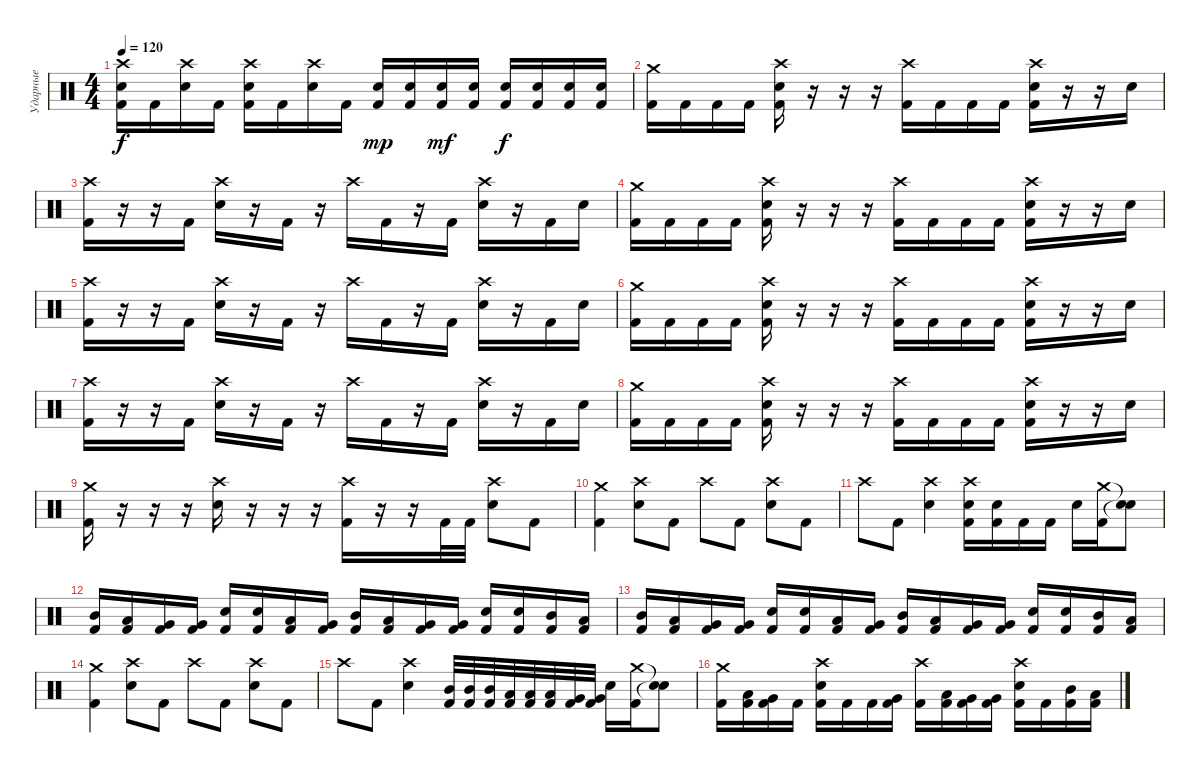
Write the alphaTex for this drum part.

\track ("Ударные" "Ударные") {instrument percussion}
\staff {score}
\articulation defaults
\ts (4 4)
\tempo 120
\clef neutral
\ks c
("Kick (hit) 2" "Electric Snare (hit)" "Crash high (hit)").16{dy f} "Kick (hit) 2".16 ("Electric Snare (hit)" "Crash high (hit)").16 "Kick (hit) 2".16 ("Kick (hit) 2" "Electric Snare (hit)" "Crash high (hit)").16 "Kick (hit) 2".16 ("Electric Snare (hit)" "Crash high (hit)").16 "Kick (hit) 2".16 ("Electric Snare (hit)" "Kick (hit) 2").16{dy mp} ("Electric Snare (hit)" "Kick (hit) 2").16 ("Electric Snare (hit)" "Kick (hit) 2").16{dy mf} ("Electric Snare (hit)" "Kick (hit) 2").16 ("Electric Snare (hit)" "Kick (hit) 2").16{dy f} ("Electric Snare (hit)" "Kick (hit) 2").16 ("Electric Snare (hit)" "Kick (hit) 2").16 ("Electric Snare (hit)" "Kick (hit) 2").16 |
("Kick (hit) 2" "Crash medium (hit)").16 "Kick (hit) 2".16 "Kick (hit) 2".16 "Kick (hit) 2".16 ("Kick (hit) 2" "Electric Snare (hit)" "Crash high (hit)").16 r.16 r.16 r.16 ("Kick (hit) 2" "Crash high (hit)").16 "Kick (hit) 2".16 "Kick (hit) 2".16 "Kick (hit) 2".16 ("Kick (hit) 2" "Electric Snare (hit)" "Crash high (hit)").16 r.16 r.16 "Electric Snare (hit)".16 |
("Kick (hit) 2" "Crash high (hit)").16 r.16 r.16 "Kick (hit) 2".16 ("Electric Snare (hit)" "Crash high (hit)").16 r.16 "Kick (hit) 2".16 r.16 "Crash high (hit)".16 "Kick (hit) 2".16 r.16 "Kick (hit) 2".16 ("Electric Snare (hit)" "Crash high (hit)").16 r.16 "Kick (hit) 2".16 "Electric Snare (hit)".16 |
("Kick (hit) 2" "Crash medium (hit)").16 "Kick (hit) 2".16 "Kick (hit) 2".16 "Kick (hit) 2".16 ("Kick (hit) 2" "Electric Snare (hit)" "Crash high (hit)").16 r.16 r.16 r.16 ("Kick (hit) 2" "Crash high (hit)").16 "Kick (hit) 2".16 "Kick (hit) 2".16 "Kick (hit) 2".16 ("Kick (hit) 2" "Electric Snare (hit)" "Crash high (hit)").16 r.16 r.16 "Electric Snare (hit)".16 |
("Kick (hit) 2" "Crash high (hit)").16 r.16 r.16 "Kick (hit) 2".16 ("Electric Snare (hit)" "Crash high (hit)").16 r.16 "Kick (hit) 2".16 r.16 "Crash high (hit)".16 "Kick (hit) 2".16 r.16 "Kick (hit) 2".16 ("Electric Snare (hit)" "Crash high (hit)").16 r.16 "Kick (hit) 2".16 "Electric Snare (hit)".16 |
("Kick (hit) 2" "Crash medium (hit)").16 "Kick (hit) 2".16 "Kick (hit) 2".16 "Kick (hit) 2".16 ("Kick (hit) 2" "Electric Snare (hit)" "Crash high (hit)").16 r.16 r.16 r.16 ("Kick (hit) 2" "Crash high (hit)").16 "Kick (hit) 2".16 "Kick (hit) 2".16 "Kick (hit) 2".16 ("Kick (hit) 2" "Electric Snare (hit)" "Crash high (hit)").16 r.16 r.16 "Electric Snare (hit)".16 |
("Kick (hit) 2" "Crash high (hit)").16 r.16 r.16 "Kick (hit) 2".16 ("Electric Snare (hit)" "Crash high (hit)").16 r.16 "Kick (hit) 2".16 r.16 "Crash high (hit)".16 "Kick (hit) 2".16 r.16 "Kick (hit) 2".16 ("Electric Snare (hit)" "Crash high (hit)").16 r.16 "Kick (hit) 2".16 "Electric Snare (hit)".16 |
("Kick (hit) 2" "Crash medium (hit)").16 "Kick (hit) 2".16 "Kick (hit) 2".16 "Kick (hit) 2".16 ("Kick (hit) 2" "Electric Snare (hit)" "Crash high (hit)").16 r.16 r.16 r.16 ("Kick (hit) 2" "Crash high (hit)").16 "Kick (hit) 2".16 "Kick (hit) 2".16 "Kick (hit) 2".16 ("Kick (hit) 2" "Electric Snare (hit)" "Crash high (hit)").16 r.16 r.16 "Electric Snare (hit)".16 |
("Kick (hit) 2" "Crash medium (hit)").16 r.16 r.16 r.16 ("Electric Snare (hit)" "Crash high (hit)").16 r.16 r.16 r.16 ("Kick (hit) 2" "Crash high (hit)").16 r.16 r.16 "Kick (hit) 2".32 "Kick (hit) 2".32 ("Electric Snare (hit)" "Crash high (hit)").8 "Kick (hit) 2".8 |
("Kick (hit) 2" "Crash medium (hit)").4 ("Electric Snare (hit)" "Crash high (hit)").8 "Kick (hit) 2".8 "Crash high (hit)".8 "Kick (hit) 2".8 ("Electric Snare (hit)" "Crash high (hit)").8 "Kick (hit) 2".8 |
"Crash high (hit)".8 "Kick (hit) 2".8 ("Electric Snare (hit)" "Crash high (hit)").4 ("Electric Snare (hit)" "Kick (hit) 2" "Crash high (hit)").16 ("Electric Snare (hit)" "Kick (hit) 2").16 "Kick (hit) 2".16 "Kick (hit) 2".16 "Electric Snare (hit)".16 ("Crash medium (hit)" "Kick (hit) 2").16 ("Snare (hit)"{t} "Snare (hit)"{t}).8 |
("Kick (hit) 2" "Mid Tom (hit)").16 ("Kick (hit) 2" "Low Tom (hit)").16 ("Kick (hit) 2" "Very Low Tom (hit)").16 ("Kick (hit) 2" "Very Low Tom (hit)").16 ("Kick (hit) 2" "Electric Snare (hit)").16 ("Kick (hit) 2" "Electric Snare (hit)").16 ("Kick (hit) 2" "Low Tom (hit)").16 ("Kick (hit) 2" "Very Low Tom (hit)").16 ("Kick (hit) 2" "Mid Tom (hit)").16 ("Kick (hit) 2" "Low Tom (hit)").16 ("Kick (hit) 2" "Very Low Tom (hit)").16 ("Kick (hit) 2" "Very Low Tom (hit)").16 ("Kick (hit) 2" "Electric Snare (hit)").16 ("Kick (hit) 2" "Electric Snare (hit)").16 ("Kick (hit) 2" "Mid Tom (hit)").16 ("Kick (hit) 2" "Low Tom (hit)").16 |
("Kick (hit) 2" "Mid Tom (hit)").16 ("Kick (hit) 2" "Low Tom (hit)").16 ("Kick (hit) 2" "Very Low Tom (hit)").16 ("Kick (hit) 2" "Very Low Tom (hit)").16 ("Kick (hit) 2" "Electric Snare (hit)").16 ("Kick (hit) 2" "Electric Snare (hit)").16 ("Kick (hit) 2" "Low Tom (hit)").16 ("Kick (hit) 2" "Very Low Tom (hit)").16 ("Kick (hit) 2" "Mid Tom (hit)").16 ("Kick (hit) 2" "Low Tom (hit)").16 ("Kick (hit) 2" "Very Low Tom (hit)").16 ("Kick (hit) 2" "Very Low Tom (hit)").16 ("Kick (hit) 2" "Electric Snare (hit)").16 ("Kick (hit) 2" "Electric Snare (hit)").16 ("Kick (hit) 2" "Mid Tom (hit)").16 ("Kick (hit) 2" "Low Tom (hit)").16 |
("Kick (hit) 2" "Crash medium (hit)").4 ("Electric Snare (hit)" "Crash high (hit)").8 "Kick (hit) 2".8 "Crash high (hit)".8 "Kick (hit) 2".8 ("Electric Snare (hit)" "Crash high (hit)").8 "Kick (hit) 2".8 |
"Crash high (hit)".8 "Kick (hit) 2".8 ("Electric Snare (hit)" "Crash high (hit)").4 ("Mid Tom (hit)" "Kick (hit) 2").32 ("Mid Tom (hit)" "Kick (hit) 2").32 ("Mid Tom (hit)" "Kick (hit) 2").32 ("Low Tom (hit)" "Kick (hit) 2").32 ("Low Tom (hit)" "Kick (hit) 2").32 ("Low Tom (hit)" "Kick (hit) 2").32 ("Very Low Tom (hit)" "Kick (hit) 2").32 ("Very Low Tom (hit)" "Kick (hit) 2").32 "Electric Snare (hit)".16 ("Crash medium (hit)" "Kick (hit) 2").16 ("Snare (hit)"{t} "Snare (hit)"{t}).8 |
("Kick (hit) 2" "Crash medium (hit)").16 ("Kick (hit) 2" "Low Tom (hit)").16 ("Kick (hit) 2" "Very Low Tom (hit)").16 "Kick (hit) 2".16 ("Kick (hit) 2" "Electric Snare (hit)" "Crash high (hit)").16 "Kick (hit) 2".16 "Kick (hit) 2".16 ("Kick (hit) 2" "Very Low Tom (hit)").16 ("Kick (hit) 2" "Crash high (hit)").16 ("Kick (hit) 2" "Low Tom (hit)").16 ("Kick (hit) 2" "Very Low Tom (hit)").16 ("Kick (hit) 2" "Very Low Tom (hit)").16 ("Kick (hit) 2" "Electric Snare (hit)" "Crash high (hit)").16 "Kick (hit) 2".16 ("Kick (hit) 2" "Mid Tom (hit)").16 ("Kick (hit) 2" "Low Tom (hit)").16
